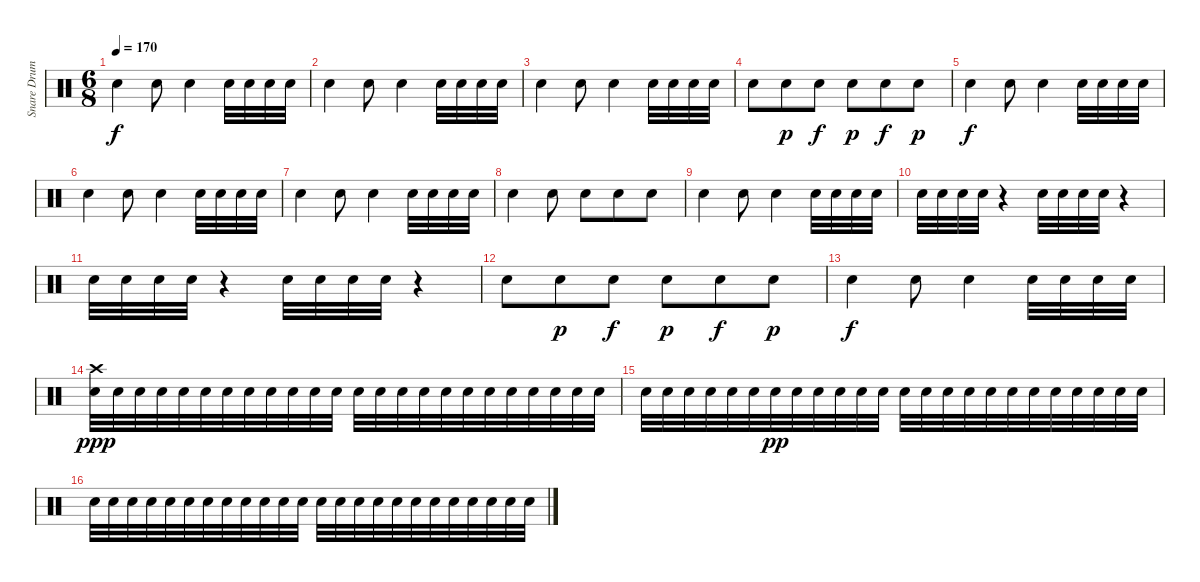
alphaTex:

\track ("Snare Drum" "Snare Drum") {instrument percussion}
\staff {score}
\articulation defaults
\ts (6 8)
\tempo 170
\clef neutral
\ks c "Snare (hit) 2".4{dy f} "Snare (hit) 2".8 "Snare (hit) 2".4 "Snare (hit) 2".32 "Snare (hit) 2".32 "Snare (hit) 2".32 "Snare (hit) 2".32
|
"Snare (hit) 2".4 "Snare (hit) 2".8 "Snare (hit) 2".4 "Snare (hit) 2".32 "Snare (hit) 2".32 "Snare (hit) 2".32 "Snare (hit) 2".32 |
"Snare (hit) 2".4 "Snare (hit) 2".8 "Snare (hit) 2".4 "Snare (hit) 2".32 "Snare (hit) 2".32 "Snare (hit) 2".32 "Snare (hit) 2".32 |
"Snare (hit) 2".8 "Snare (hit) 2".8{dy p} "Snare (hit) 2".8{dy f} "Snare (hit) 2".8{dy p} "Snare (hit) 2".8{dy f} "Snare (hit) 2".8{dy p} |
"Snare (hit) 2".4{dy f} "Snare (hit) 2".8 "Snare (hit) 2".4 "Snare (hit) 2".32 "Snare (hit) 2".32 "Snare (hit) 2".32 "Snare (hit) 2".32 |
"Snare (hit) 2".4 "Snare (hit) 2".8 "Snare (hit) 2".4 "Snare (hit) 2".32 "Snare (hit) 2".32 "Snare (hit) 2".32 "Snare (hit) 2".32 |
"Snare (hit) 2".4 "Snare (hit) 2".8 "Snare (hit) 2".4 "Snare (hit) 2".32 "Snare (hit) 2".32 "Snare (hit) 2".32 "Snare (hit) 2".32 |
"Snare (hit) 2".4 "Snare (hit) 2".8 "Snare (hit) 2".8 "Snare (hit) 2".8 "Snare (hit) 2".8 |
"Snare (hit) 2".4 "Snare (hit) 2".8 "Snare (hit) 2".4 "Snare (hit) 2".32 "Snare (hit) 2".32 "Snare (hit) 2".32 "Snare (hit) 2".32 |
"Snare (hit) 2".32 "Snare (hit) 2".32 "Snare (hit) 2".32 "Snare (hit) 2".32 r.4 "Snare (hit) 2".32 "Snare (hit) 2".32 "Snare (hit) 2".32 "Snare (hit) 2".32 r.4 |
"Snare (hit) 2".32 "Snare (hit) 2".32 "Snare (hit) 2".32 "Snare (hit) 2".32 r.4 "Snare (hit) 2".32 "Snare (hit) 2".32 "Snare (hit) 2".32 "Snare (hit) 2".32 r.4 |
"Snare (hit) 2".8 "Snare (hit) 2".8{dy p} "Snare (hit) 2".8{dy f} "Snare (hit) 2".8{dy p} "Snare (hit) 2".8{dy f} "Snare (hit) 2".8{dy p} |
"Snare (hit) 2".4{dy f} "Snare (hit) 2".8 "Snare (hit) 2".4 "Snare (hit) 2".32 "Snare (hit) 2".32 "Snare (hit) 2".32 "Snare (hit) 2".32 |
("Crash high (hit)" "Snare (hit) 2").32{dy ppp} "Snare (hit) 2".32 "Snare (hit) 2".32 "Snare (hit) 2".32 "Snare (hit) 2".32 "Snare (hit) 2".32 "Snare (hit) 2".32 "Snare (hit) 2".32 "Snare (hit) 2".32 "Snare (hit) 2".32 "Snare (hit) 2".32 "Snare (hit) 2".32 "Snare (hit) 2".32 "Snare (hit) 2".32 "Snare (hit) 2".32 "Snare (hit) 2".32 "Snare (hit) 2".32 "Snare (hit) 2".32 "Snare (hit) 2".32 "Snare (hit) 2".32 "Snare (hit) 2".32 "Snare (hit) 2".32 "Snare (hit) 2".32 "Snare (hit) 2".32 |
"Snare (hit) 2".32 "Snare (hit) 2".32 "Snare (hit) 2".32 "Snare (hit) 2".32 "Snare (hit) 2".32 "Snare (hit) 2".32 "Snare (hit) 2".32{dy pp} "Snare (hit) 2".32 "Snare (hit) 2".32 "Snare (hit) 2".32 "Snare (hit) 2".32 "Snare (hit) 2".32 "Snare (hit) 2".32 "Snare (hit) 2".32 "Snare (hit) 2".32 "Snare (hit) 2".32 "Snare (hit) 2".32 "Snare (hit) 2".32 "Snare (hit) 2".32 "Snare (hit) 2".32 "Snare (hit) 2".32 "Snare (hit) 2".32 "Snare (hit) 2".32 "Snare (hit) 2".32 |
"Snare (hit) 2".32 "Snare (hit) 2".32 "Snare (hit) 2".32 "Snare (hit) 2".32 "Snare (hit) 2".32 "Snare (hit) 2".32 "Snare (hit) 2".32 "Snare (hit) 2".32 "Snare (hit) 2".32 "Snare (hit) 2".32 "Snare (hit) 2".32 "Snare (hit) 2".32 "Snare (hit) 2".32 "Snare (hit) 2".32 "Snare (hit) 2".32 "Snare (hit) 2".32 "Snare (hit) 2".32 "Snare (hit) 2".32 "Snare (hit) 2".32 "Snare (hit) 2".32 "Snare (hit) 2".32 "Snare (hit) 2".32 "Snare (hit) 2".32 "Snare (hit) 2".32
